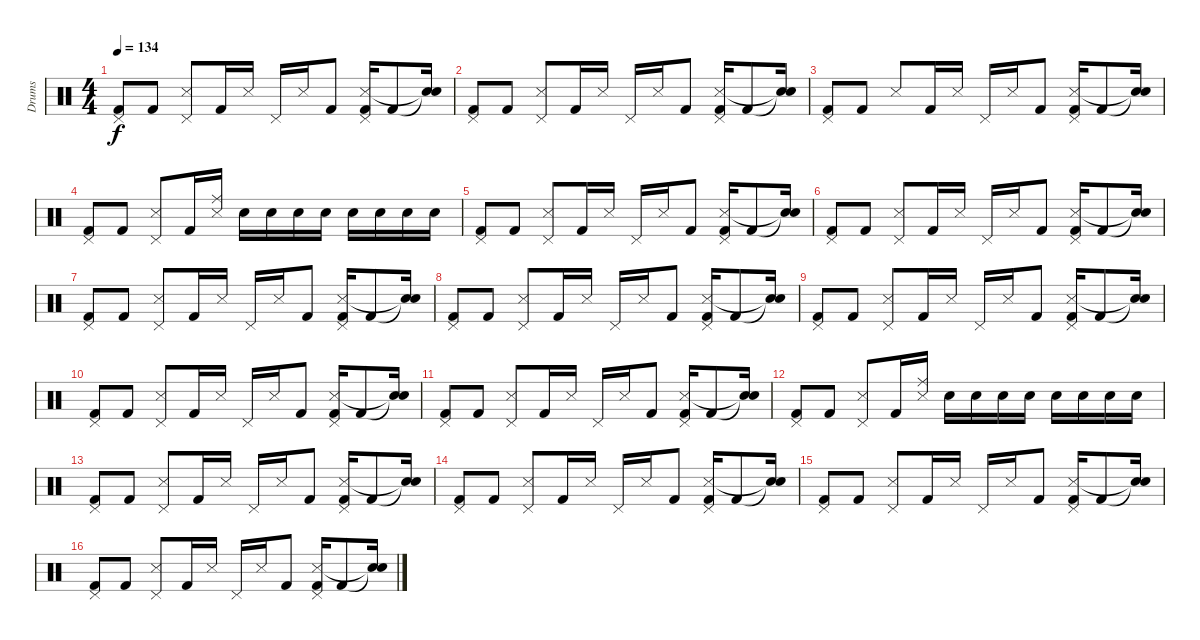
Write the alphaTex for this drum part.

\track ("Drums" "Drums") {instrument percussion}
\staff {score}
\articulation defaults
\ts (4 4)
\tempo 134
\clef neutral
\ks c
("Pedal Hi-Hat (hit)" "Kick (hit) 2").8{dy f} "Kick (hit) 2".8 ("Snare (side stick) 3" "Pedal Hi-Hat (hit)").8 "Kick (hit) 2".16 "Snare (side stick) 3".16 "Pedal Hi-Hat (hit)".16 "Snare (side stick) 3".16 "Kick (hit) 2".8 ("Pedal Hi-Hat (hit)" "Snare (side stick) 3" "Kick (hit) 2").16 "Kick (hit) 2".8 ("Snare (hit)"{t} "Snare (hit)"{t}).16 |
("Pedal Hi-Hat (hit)" "Kick (hit) 2").8 "Kick (hit) 2".8 ("Snare (side stick) 3" "Pedal Hi-Hat (hit)").8 "Kick (hit) 2".16 "Snare (side stick) 3".16 "Pedal Hi-Hat (hit)".16 "Snare (side stick) 3".16 "Kick (hit) 2".8 ("Pedal Hi-Hat (hit)" "Snare (side stick) 3" "Kick (hit) 2").16 "Kick (hit) 2".8 ("Snare (hit)"{t} "Snare (hit)"{t}).16 |
("Pedal Hi-Hat (hit)" "Kick (hit) 2").8 "Kick (hit) 2".8 "Snare (side stick) 3".8 "Kick (hit) 2".16 "Snare (side stick) 3".16 "Pedal Hi-Hat (hit)".16 "Snare (side stick) 3".16 "Kick (hit) 2".8 ("Pedal Hi-Hat (hit)" "Snare (side stick) 3" "Kick (hit) 2").16 "Kick (hit) 2".8 ("Snare (hit)"{t} "Snare (hit)"{t}).16 |
("Pedal Hi-Hat (hit)" "Kick (hit) 2").8 "Kick (hit) 2".8 ("Snare (side stick) 3" "Pedal Hi-Hat (hit)").8 "Kick (hit) 2".16 ("Snare (side stick) 3" "Ride (middle)").16 "Electric Snare (hit)".16 "Electric Snare (hit)".16 "Electric Snare (hit)".16 "Electric Snare (hit)".16 "Electric Snare (hit)".16 "Electric Snare (hit)".16 "Electric Snare (hit)".16 "Electric Snare (hit)".16 |
("Pedal Hi-Hat (hit)" "Kick (hit) 2").8 "Kick (hit) 2".8 ("Snare (side stick) 3" "Pedal Hi-Hat (hit)").8 "Kick (hit) 2".16 "Snare (side stick) 3".16 "Pedal Hi-Hat (hit)".16 "Snare (side stick) 3".16 "Kick (hit) 2".8 ("Pedal Hi-Hat (hit)" "Snare (side stick) 3" "Kick (hit) 2").16 "Kick (hit) 2".8 ("Snare (hit)"{t} "Snare (hit)"{t}).16 |
("Pedal Hi-Hat (hit)" "Kick (hit) 2").8 "Kick (hit) 2".8 ("Snare (side stick) 3" "Pedal Hi-Hat (hit)").8 "Kick (hit) 2".16 "Snare (side stick) 3".16 "Pedal Hi-Hat (hit)".16 "Snare (side stick) 3".16 "Kick (hit) 2".8 ("Pedal Hi-Hat (hit)" "Snare (side stick) 3" "Kick (hit) 2").16 "Kick (hit) 2".8 ("Snare (hit)"{t} "Snare (hit)"{t}).16 |
("Pedal Hi-Hat (hit)" "Kick (hit) 2").8 "Kick (hit) 2".8 ("Snare (side stick) 3" "Pedal Hi-Hat (hit)").8 "Kick (hit) 2".16 "Snare (side stick) 3".16 "Pedal Hi-Hat (hit)".16 "Snare (side stick) 3".16 "Kick (hit) 2".8 ("Pedal Hi-Hat (hit)" "Snare (side stick) 3" "Kick (hit) 2").16 "Kick (hit) 2".8 ("Snare (hit)"{t} "Snare (hit)"{t}).16 |
("Pedal Hi-Hat (hit)" "Kick (hit) 2").8 "Kick (hit) 2".8 ("Snare (side stick) 3" "Pedal Hi-Hat (hit)").8 "Kick (hit) 2".16 "Snare (side stick) 3".16 "Pedal Hi-Hat (hit)".16 "Snare (side stick) 3".16 "Kick (hit) 2".8 ("Pedal Hi-Hat (hit)" "Snare (side stick) 3" "Kick (hit) 2").16 "Kick (hit) 2".8 ("Snare (hit)"{t} "Snare (hit)"{t}).16 |
("Pedal Hi-Hat (hit)" "Kick (hit) 2").8 "Kick (hit) 2".8 ("Snare (side stick) 3" "Pedal Hi-Hat (hit)").8 "Kick (hit) 2".16 "Snare (side stick) 3".16 "Pedal Hi-Hat (hit)".16 "Snare (side stick) 3".16 "Kick (hit) 2".8 ("Pedal Hi-Hat (hit)" "Snare (side stick) 3" "Kick (hit) 2").16 "Kick (hit) 2".8 ("Snare (hit)"{t} "Snare (hit)"{t}).16 |
("Pedal Hi-Hat (hit)" "Kick (hit) 2").8 "Kick (hit) 2".8 ("Snare (side stick) 3" "Pedal Hi-Hat (hit)").8 "Kick (hit) 2".16 "Snare (side stick) 3".16 "Pedal Hi-Hat (hit)".16 "Snare (side stick) 3".16 "Kick (hit) 2".8 ("Pedal Hi-Hat (hit)" "Snare (side stick) 3" "Kick (hit) 2").16 "Kick (hit) 2".8 ("Snare (hit)"{t} "Snare (hit)"{t}).16 |
("Pedal Hi-Hat (hit)" "Kick (hit) 2").8 "Kick (hit) 2".8 ("Snare (side stick) 3" "Pedal Hi-Hat (hit)").8 "Kick (hit) 2".16 "Snare (side stick) 3".16 "Pedal Hi-Hat (hit)".16 "Snare (side stick) 3".16 "Kick (hit) 2".8 ("Pedal Hi-Hat (hit)" "Snare (side stick) 3" "Kick (hit) 2").16 "Kick (hit) 2".8 ("Snare (hit)"{t} "Snare (hit)"{t}).16 |
("Pedal Hi-Hat (hit)" "Kick (hit) 2").8 "Kick (hit) 2".8 ("Snare (side stick) 3" "Pedal Hi-Hat (hit)").8 "Kick (hit) 2".16 ("Snare (side stick) 3" "Ride (middle)").16 "Electric Snare (hit)".16 "Electric Snare (hit)".16 "Electric Snare (hit)".16 "Electric Snare (hit)".16 "Electric Snare (hit)".16 "Electric Snare (hit)".16 "Electric Snare (hit)".16 "Electric Snare (hit)".16 |
("Pedal Hi-Hat (hit)" "Kick (hit) 2").8 "Kick (hit) 2".8 ("Snare (side stick) 3" "Pedal Hi-Hat (hit)").8 "Kick (hit) 2".16 "Snare (side stick) 3".16 "Pedal Hi-Hat (hit)".16 "Snare (side stick) 3".16 "Kick (hit) 2".8 ("Pedal Hi-Hat (hit)" "Snare (side stick) 3" "Kick (hit) 2").16 "Kick (hit) 2".8 ("Snare (hit)"{t} "Snare (hit)"{t}).16 |
("Pedal Hi-Hat (hit)" "Kick (hit) 2").8 "Kick (hit) 2".8 ("Snare (side stick) 3" "Pedal Hi-Hat (hit)").8 "Kick (hit) 2".16 "Snare (side stick) 3".16 "Pedal Hi-Hat (hit)".16 "Snare (side stick) 3".16 "Kick (hit) 2".8 ("Pedal Hi-Hat (hit)" "Snare (side stick) 3" "Kick (hit) 2").16 "Kick (hit) 2".8 ("Snare (hit)"{t} "Snare (hit)"{t}).16 |
("Pedal Hi-Hat (hit)" "Kick (hit) 2").8 "Kick (hit) 2".8 ("Snare (side stick) 3" "Pedal Hi-Hat (hit)").8 "Kick (hit) 2".16 "Snare (side stick) 3".16 "Pedal Hi-Hat (hit)".16 "Snare (side stick) 3".16 "Kick (hit) 2".8 ("Pedal Hi-Hat (hit)" "Snare (side stick) 3" "Kick (hit) 2").16 "Kick (hit) 2".8 ("Snare (hit)"{t} "Snare (hit)"{t}).16 |
("Pedal Hi-Hat (hit)" "Kick (hit) 2").8 "Kick (hit) 2".8 ("Snare (side stick) 3" "Pedal Hi-Hat (hit)").8 "Kick (hit) 2".16 "Snare (side stick) 3".16 "Pedal Hi-Hat (hit)".16 "Snare (side stick) 3".16 "Kick (hit) 2".8 ("Pedal Hi-Hat (hit)" "Snare (side stick) 3" "Kick (hit) 2").16 "Kick (hit) 2".8 ("Snare (hit)"{t} "Snare (hit)"{t}).16
